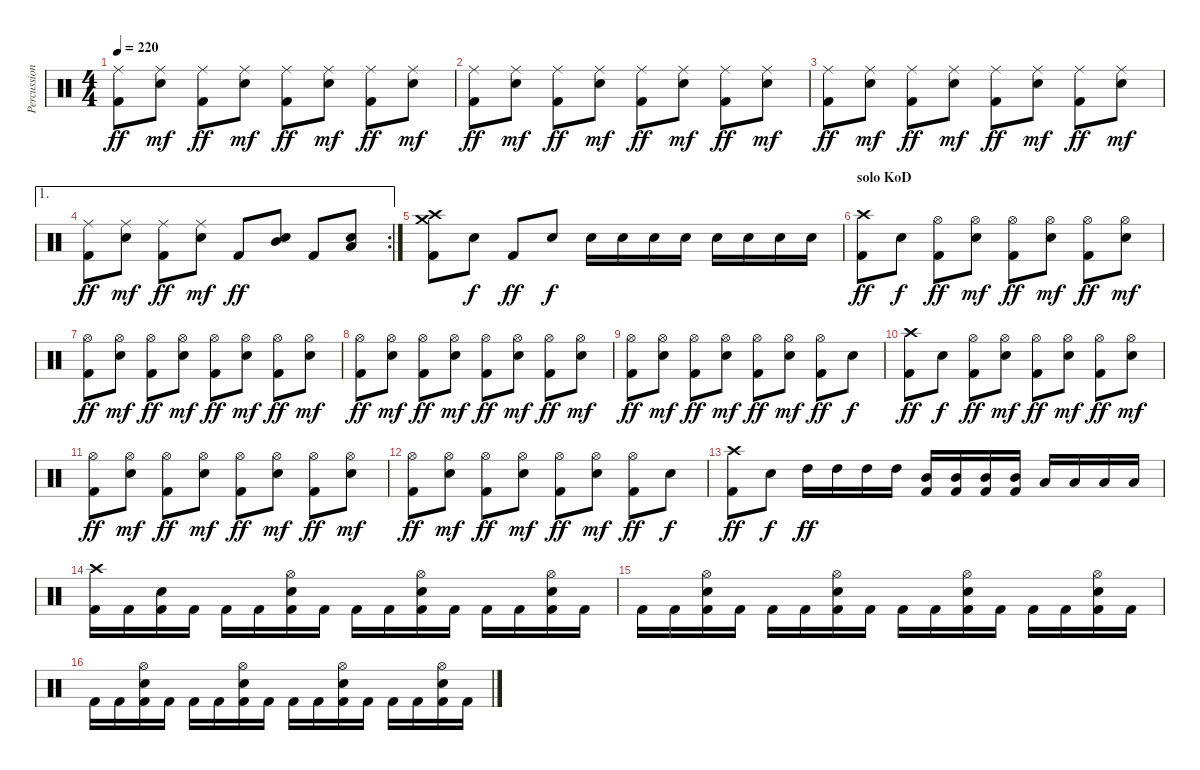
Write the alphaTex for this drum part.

\track ("Percussion" "Percussion") {instrument percussion}
\staff {score}
\articulation defaults
\ts (4 4)
\tempo 220
\clef neutral
\ks c
("Ride (middle)" "Kick (hit) 2").8{dy ff} ("Ride (middle)" "Snare (hit) 2").8{dy mf} ("Ride (middle)" "Kick (hit) 2").8{dy ff} ("Ride (middle)" "Snare (hit) 2").8{dy mf} ("Ride (middle)" "Kick (hit) 2").8{dy ff} ("Ride (middle)" "Snare (hit) 2").8{dy mf} ("Ride (middle)" "Kick (hit) 2").8{dy ff} ("Ride (middle)" "Snare (hit) 2").8{dy mf} |
("Ride (middle)" "Kick (hit) 2").8{dy ff} ("Ride (middle)" "Snare (hit) 2").8{dy mf} ("Ride (middle)" "Kick (hit) 2").8{dy ff} ("Ride (middle)" "Snare (hit) 2").8{dy mf} ("Ride (middle)" "Kick (hit) 2").8{dy ff} ("Ride (middle)" "Snare (hit) 2").8{dy mf} ("Ride (middle)" "Kick (hit) 2").8{dy ff} ("Ride (middle)" "Snare (hit) 2").8{dy mf} |
("Ride (middle)" "Kick (hit) 2").8{dy ff} ("Ride (middle)" "Snare (hit) 2").8{dy mf} ("Ride (middle)" "Kick (hit) 2").8{dy ff} ("Ride (middle)" "Snare (hit) 2").8{dy mf} ("Ride (middle)" "Kick (hit) 2").8{dy ff} ("Ride (middle)" "Snare (hit) 2").8{dy mf} ("Ride (middle)" "Kick (hit) 2").8{dy ff} ("Ride (middle)" "Snare (hit) 2").8{dy mf} |
\ae 1
\rc 2
("Ride (middle)" "Kick (hit) 2").8{dy ff} ("Ride (middle)" "Snare (hit) 2").8{dy mf} ("Ride (middle)" "Kick (hit) 2").8{dy ff} ("Ride (middle)" "Snare (hit) 2").8{dy mf} "Kick (hit) 2".8{dy ff} ("Mid Tom (hit)" "Snare (hit) 2").8 "Kick (hit) 2".8 ("Low Tom (hit)" "Snare (hit) 2").8 |
("Crash medium (hit)" "Crash high (hit)" "Kick (hit) 2").8 "Snare (hit) 2".8{dy f} "Kick (hit) 2".8{dy ff} "Snare (hit) 2".8{dy f} "Snare (hit) 2".16 "Snare (hit) 2".16 "Snare (hit) 2".16 "Snare (hit) 2".16 "Snare (hit) 2".16 "Snare (hit) 2".16 "Snare (hit) 2".16 "Snare (hit) 2".16 |
\section ("" "solo KoD")
("Crash high (hit)" "Kick (hit) 2").8{dy ff} "Snare (hit) 2".8{dy f} ("Hi-Hat (open)" "Kick (hit) 2").8{dy ff} ("Hi-Hat (open)" "Snare (hit) 2").8{dy mf} ("Hi-Hat (open)" "Kick (hit) 2").8{dy ff} ("Hi-Hat (open)" "Snare (hit) 2").8{dy mf} ("Hi-Hat (open)" "Kick (hit) 2").8{dy ff} ("Hi-Hat (open)" "Snare (hit) 2").8{dy mf} |
("Hi-Hat (open)" "Kick (hit) 2").8{dy ff} ("Hi-Hat (open)" "Snare (hit) 2").8{dy mf} ("Hi-Hat (open)" "Kick (hit) 2").8{dy ff} ("Hi-Hat (open)" "Snare (hit) 2").8{dy mf} ("Hi-Hat (open)" "Kick (hit) 2").8{dy ff} ("Hi-Hat (open)" "Snare (hit) 2").8{dy mf} ("Hi-Hat (open)" "Kick (hit) 2").8{dy ff} ("Hi-Hat (open)" "Snare (hit) 2").8{dy mf} |
("Hi-Hat (open)" "Kick (hit) 2").8{dy ff} ("Hi-Hat (open)" "Snare (hit) 2").8{dy mf} ("Hi-Hat (open)" "Kick (hit) 2").8{dy ff} ("Hi-Hat (open)" "Snare (hit) 2").8{dy mf} ("Hi-Hat (open)" "Kick (hit) 2").8{dy ff} ("Hi-Hat (open)" "Snare (hit) 2").8{dy mf} ("Hi-Hat (open)" "Kick (hit) 2").8{dy ff} ("Hi-Hat (open)" "Snare (hit) 2").8{dy mf} |
("Hi-Hat (open)" "Kick (hit) 2").8{dy ff} ("Hi-Hat (open)" "Snare (hit) 2").8{dy mf} ("Hi-Hat (open)" "Kick (hit) 2").8{dy ff} ("Hi-Hat (open)" "Snare (hit) 2").8{dy mf} ("Hi-Hat (open)" "Kick (hit) 2").8{dy ff} ("Hi-Hat (open)" "Snare (hit) 2").8{dy mf} ("Hi-Hat (open)" "Kick (hit) 2").8{dy ff} "Snare (hit) 2".8{dy f} |
("Crash high (hit)" "Kick (hit) 2").8{dy ff} "Snare (hit) 2".8{dy f} ("Hi-Hat (open)" "Kick (hit) 2").8{dy ff} ("Hi-Hat (open)" "Snare (hit) 2").8{dy mf} ("Hi-Hat (open)" "Kick (hit) 2").8{dy ff} ("Hi-Hat (open)" "Snare (hit) 2").8{dy mf} ("Hi-Hat (open)" "Kick (hit) 2").8{dy ff} ("Hi-Hat (open)" "Snare (hit) 2").8{dy mf} |
("Hi-Hat (open)" "Kick (hit) 2").8{dy ff} ("Hi-Hat (open)" "Snare (hit) 2").8{dy mf} ("Hi-Hat (open)" "Kick (hit) 2").8{dy ff} ("Hi-Hat (open)" "Snare (hit) 2").8{dy mf} ("Hi-Hat (open)" "Kick (hit) 2").8{dy ff} ("Hi-Hat (open)" "Snare (hit) 2").8{dy mf} ("Hi-Hat (open)" "Kick (hit) 2").8{dy ff} ("Hi-Hat (open)" "Snare (hit) 2").8{dy mf} |
("Hi-Hat (open)" "Kick (hit) 2").8{dy ff} ("Hi-Hat (open)" "Snare (hit) 2").8{dy mf} ("Hi-Hat (open)" "Kick (hit) 2").8{dy ff} ("Hi-Hat (open)" "Snare (hit) 2").8{dy mf} ("Hi-Hat (open)" "Kick (hit) 2").8{dy ff} ("Hi-Hat (open)" "Snare (hit) 2").8{dy mf} ("Hi-Hat (open)" "Kick (hit) 2").8{dy ff} "Snare (hit) 2".8{dy f} |
("Crash high (hit)" "Kick (hit) 2").8{dy ff} "Snare (hit) 2".8{dy f} "High Tom (hit)".16{dy ff} "High Tom (hit)".16 "High Tom (hit)".16 "High Tom (hit)".16 ("Mid Tom (hit)" "Kick (hit) 2").16 ("Mid Tom (hit)" "Kick (hit) 2").16 ("Mid Tom (hit)" "Kick (hit) 2").16 ("Mid Tom (hit)" "Kick (hit) 2").16 "Low Tom (hit)".16 "Low Tom (hit)".16 "Low Tom (hit)".16 "Low Tom (hit)".16 |
("Crash high (hit)" "Kick (hit) 2").16 "Kick (hit) 2".16 ("Snare (hit) 2" "Kick (hit) 2").16 "Kick (hit) 2".16 "Kick (hit) 2".16 "Kick (hit) 2".16 ("Hi-Hat (open)" "Snare (hit) 2" "Kick (hit) 2").16 "Kick (hit) 2".16 "Kick (hit) 2".16 "Kick (hit) 2".16 ("Hi-Hat (open)" "Snare (hit) 2" "Kick (hit) 2").16 "Kick (hit) 2".16 "Kick (hit) 2".16 "Kick (hit) 2".16 ("Hi-Hat (open)" "Snare (hit) 2" "Kick (hit) 2").16 "Kick (hit) 2".16 |
"Kick (hit) 2".16 "Kick (hit) 2".16 ("Hi-Hat (open)" "Snare (hit) 2" "Kick (hit) 2").16 "Kick (hit) 2".16 "Kick (hit) 2".16 "Kick (hit) 2".16 ("Hi-Hat (open)" "Snare (hit) 2" "Kick (hit) 2").16 "Kick (hit) 2".16 "Kick (hit) 2".16 "Kick (hit) 2".16 ("Hi-Hat (open)" "Snare (hit) 2" "Kick (hit) 2").16 "Kick (hit) 2".16 "Kick (hit) 2".16 "Kick (hit) 2".16 ("Hi-Hat (open)" "Snare (hit) 2" "Kick (hit) 2").16 "Kick (hit) 2".16 |
"Kick (hit) 2".16 "Kick (hit) 2".16 ("Hi-Hat (open)" "Snare (hit) 2" "Kick (hit) 2").16 "Kick (hit) 2".16 "Kick (hit) 2".16 "Kick (hit) 2".16 ("Hi-Hat (open)" "Snare (hit) 2" "Kick (hit) 2").16 "Kick (hit) 2".16 "Kick (hit) 2".16 "Kick (hit) 2".16 ("Hi-Hat (open)" "Snare (hit) 2" "Kick (hit) 2").16 "Kick (hit) 2".16 "Kick (hit) 2".16 "Kick (hit) 2".16 ("Hi-Hat (open)" "Snare (hit) 2" "Kick (hit) 2").16 "Kick (hit) 2".16
